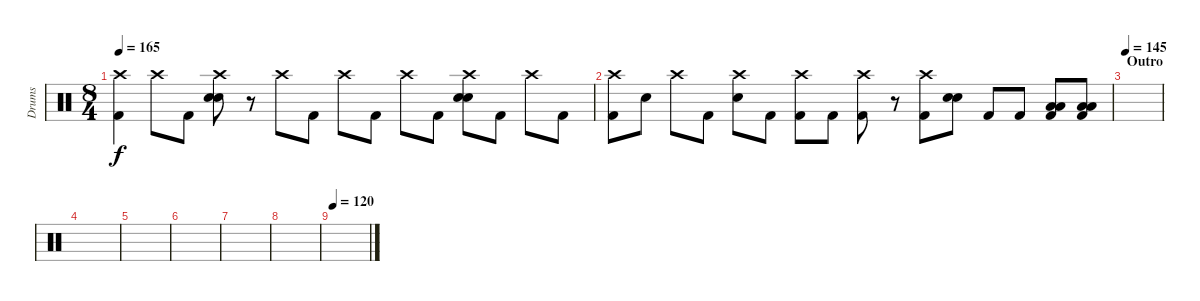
\track ("Drums" "Drums") {instrument percussion}
\staff {score}
\articulation defaults
\ts (8 4)
\tempo 165
\clef neutral
\ks c
("Crash high (hit)" "Kick (hit) 2").4{dy f} "Crash high (hit)".8 "Kick (hit) 2".8 ("Crash high (hit)" "Electric Snare (hit)" "Snare (hit) 2").8 r.8 "Crash high (hit)".8 "Kick (hit) 2".8 "Crash high (hit)".8 "Kick (hit) 2".8 "Crash high (hit)".8 "Kick (hit) 2".8 ("Crash high (hit)" "Electric Snare (hit)" "Snare (hit) 2").8 "Kick (hit) 2".8 "Crash high (hit)".8 "Kick (hit) 2".8 |
("Crash high (hit)" "Kick (hit) 2").8 "Snare (hit) 2".8 "Crash high (hit)".8 "Kick (hit) 2".8 ("Crash high (hit)" "Snare (hit) 2").8 "Kick (hit) 2".8 ("Crash high (hit)" "Kick (hit) 2").8 "Kick (hit) 2".8 ("Crash high (hit)" "Kick (hit) 2").8 r.8 ("Crash high (hit)" "Kick (hit) 2").8 ("Electric Snare (hit)" "Snare (hit) 2").8 "Kick (hit) 2".8 "Kick (hit) 2".8 ("Low Floor Tom (hit)" "Low Tom (hit)" "Kick (hit) 2").8 ("Low Floor Tom (hit)" "Low Tom (hit)" "Kick (hit) 2").8 |
\section ("" "Outro")
\tempo 145
|
|
|
|
|
|
\tempo 120
